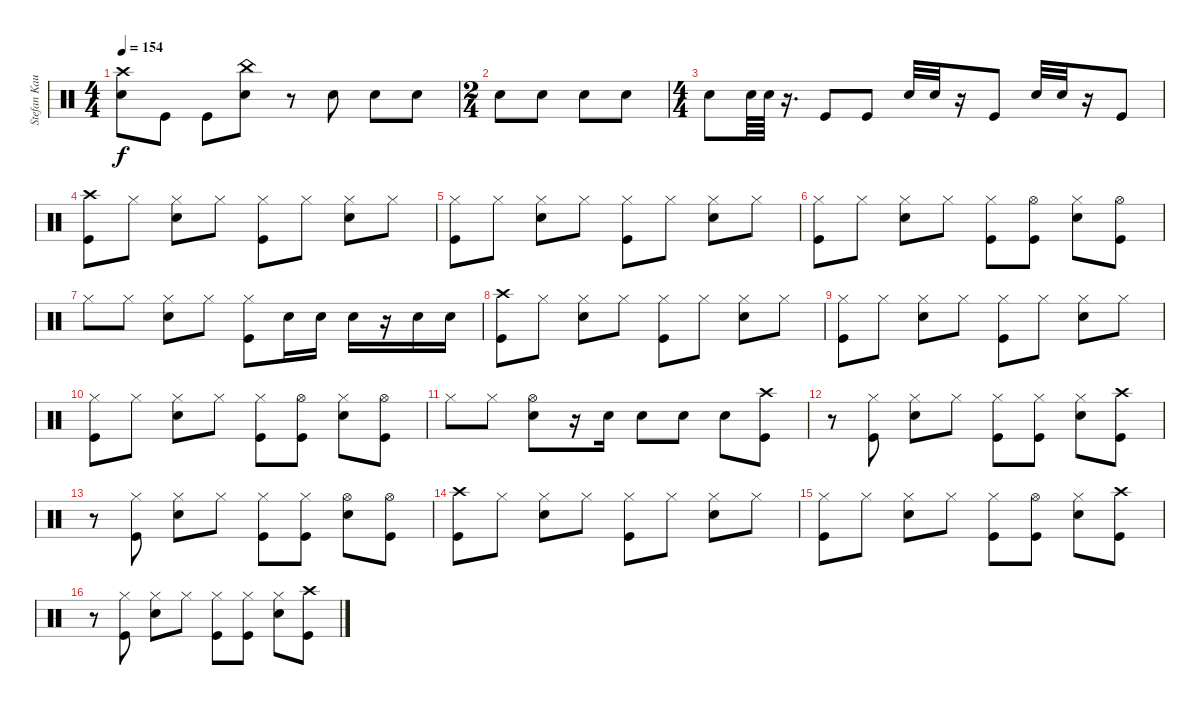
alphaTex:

\track ("Stefan Kaufmann" "Stefan Kau") {instrument percussion}
\staff {score}
\articulation defaults
\ts (4 4)
\tempo 154
\clef neutral
\ks c
("Crash high (hit)" "Snare (hit) 2").8{dy f} "Kick (hit)".8 "Kick (hit)".8 ("China (hit)" "Snare (hit) 2").8 r.8 "Snare (hit) 2".8 "Snare (hit) 2".8 "Snare (hit) 2".8 |
\ts (2 4)
"Snare (hit) 2".8 "Snare (hit) 2".8 "Snare (hit) 2".8 "Snare (hit) 2".8 |
\ts (4 4)
"Snare (hit) 2".8 "Snare (hit) 2".64 "Snare (hit) 2".64 r.16{d} "Kick (hit)".8 "Kick (hit)".8 "Snare (hit) 2".32 "Snare (hit) 2".32 r.16 "Kick (hit)".8 "Snare (hit) 2".32 "Snare (hit) 2".32 r.16 "Kick (hit)".8 |
("Crash high (hit)" "Kick (hit)").8 "Hi-Hat (closed)".8 ("Hi-Hat (closed)" "Snare (hit) 2").8 "Hi-Hat (closed)".8 ("Hi-Hat (closed)" "Kick (hit)").8 "Hi-Hat (closed)".8 ("Hi-Hat (closed)" "Snare (hit) 2").8 "Hi-Hat (closed)".8 |
("Hi-Hat (closed)" "Kick (hit)").8 "Hi-Hat (closed)".8 ("Hi-Hat (closed)" "Snare (hit) 2").8 "Hi-Hat (closed)".8 ("Hi-Hat (closed)" "Kick (hit)").8 "Hi-Hat (closed)".8 ("Hi-Hat (closed)" "Snare (hit) 2").8 "Hi-Hat (closed)".8 |
("Hi-Hat (closed)" "Kick (hit)").8 "Hi-Hat (closed)".8 ("Hi-Hat (closed)" "Snare (hit) 2").8 "Hi-Hat (closed)".8 ("Hi-Hat (closed)" "Kick (hit)").8 ("Hi-Hat (open)" "Kick (hit)").8 ("Hi-Hat (closed)" "Snare (hit) 2").8 ("Hi-Hat (open)" "Kick (hit)").8 |
"Hi-Hat (closed)".8 "Hi-Hat (closed)".8 ("Hi-Hat (closed)" "Snare (hit) 2").8 "Hi-Hat (closed)".8 ("Hi-Hat (closed)" "Kick (hit)").8 "Snare (hit) 2".16 "Snare (hit) 2".16 "Snare (hit) 2".16 r.16 "Snare (hit) 2".16 "Snare (hit) 2".16 |
("Crash high (hit)" "Kick (hit)").8 "Hi-Hat (closed)".8 ("Hi-Hat (closed)" "Snare (hit) 2").8 "Hi-Hat (closed)".8 ("Hi-Hat (closed)" "Kick (hit)").8 "Hi-Hat (closed)".8 ("Hi-Hat (closed)" "Snare (hit) 2").8 "Hi-Hat (closed)".8 |
("Hi-Hat (closed)" "Kick (hit)").8 "Hi-Hat (closed)".8 ("Hi-Hat (closed)" "Snare (hit) 2").8 "Hi-Hat (closed)".8 ("Hi-Hat (closed)" "Kick (hit)").8 "Hi-Hat (closed)".8 ("Hi-Hat (closed)" "Snare (hit) 2").8 "Hi-Hat (closed)".8 |
("Hi-Hat (closed)" "Kick (hit)").8 "Hi-Hat (closed)".8 ("Hi-Hat (closed)" "Snare (hit) 2").8 "Hi-Hat (closed)".8 ("Hi-Hat (closed)" "Kick (hit)").8 ("Hi-Hat (open)" "Kick (hit)").8 ("Hi-Hat (closed)" "Snare (hit) 2").8 ("Hi-Hat (open)" "Kick (hit)").8 |
"Hi-Hat (closed)".8 "Hi-Hat (closed)".8 ("Hi-Hat (open)" "Snare (hit) 2").8 r.16 "Snare (hit) 2".16 "Snare (hit) 2".8 "Snare (hit) 2".8 "Snare (hit) 2".8 ("Crash high (hit)" "Kick (hit)").8 |
r.8 ("Hi-Hat (closed)" "Kick (hit)").8 ("Hi-Hat (closed)" "Snare (hit) 2").8 "Hi-Hat (closed)".8 ("Hi-Hat (closed)" "Kick (hit)").8 ("Hi-Hat (closed)" "Kick (hit)").8 ("Hi-Hat (closed)" "Snare (hit) 2").8 ("Crash high (hit)" "Kick (hit)").8 |
r.8 ("Hi-Hat (closed)" "Kick (hit)").8 ("Hi-Hat (closed)" "Snare (hit) 2").8 "Hi-Hat (closed)".8 ("Hi-Hat (closed)" "Kick (hit)").8 ("Hi-Hat (closed)" "Kick (hit)").8 ("Hi-Hat (open)" "Snare (hit) 2").8 ("Hi-Hat (open)" "Kick (hit)").8 |
("Crash high (hit)" "Kick (hit)").8 "Hi-Hat (closed)".8 ("Hi-Hat (closed)" "Snare (hit) 2").8 "Hi-Hat (closed)".8 ("Hi-Hat (closed)" "Kick (hit)").8 "Hi-Hat (closed)".8 ("Hi-Hat (closed)" "Snare (hit) 2").8 "Hi-Hat (closed)".8 |
("Hi-Hat (closed)" "Kick (hit)").8 "Hi-Hat (closed)".8 ("Hi-Hat (closed)" "Snare (hit) 2").8 "Hi-Hat (closed)".8 ("Hi-Hat (closed)" "Kick (hit)").8 ("Hi-Hat (open)" "Kick (hit)").8 ("Hi-Hat (closed)" "Snare (hit) 2").8 ("Crash high (hit)" "Kick (hit)").8 |
r.8 ("Hi-Hat (closed)" "Kick (hit)").8 ("Hi-Hat (closed)" "Snare (hit) 2").8 "Hi-Hat (closed)".8 ("Hi-Hat (closed)" "Kick (hit)").8 ("Hi-Hat (closed)" "Kick (hit)").8 ("Hi-Hat (closed)" "Snare (hit) 2").8 ("Crash high (hit)" "Kick (hit)").8
